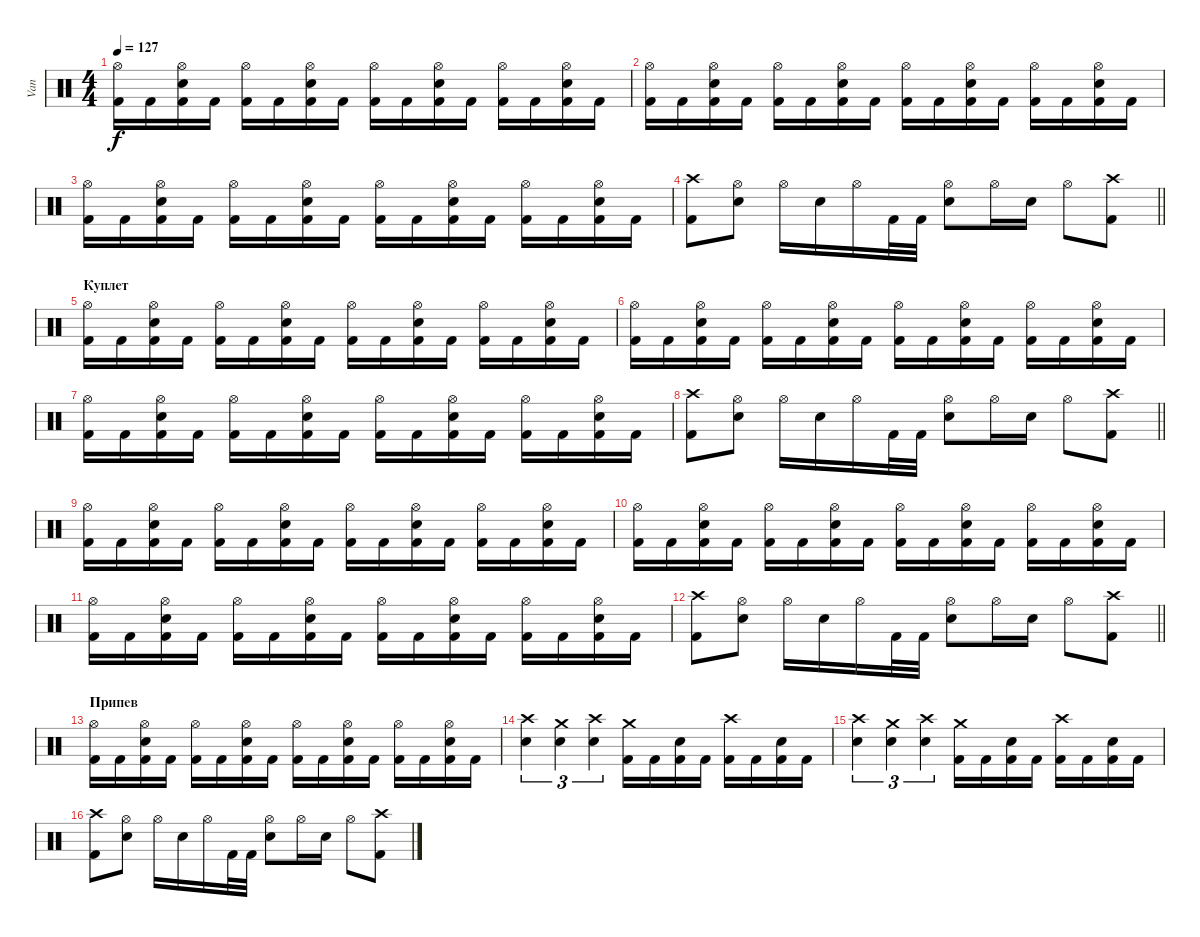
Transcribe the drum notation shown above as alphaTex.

\track ("Van" "Van") {instrument percussion}
\staff {score}
\articulation defaults
\ts (4 4)
\tempo 127
\clef neutral
\ks c
("Kick (hit) 2" "Hi-Hat (open)").16{dy f} "Kick (hit) 2".16 ("Kick (hit) 2" "Snare (hit) 2" "Hi-Hat (open)").16 "Kick (hit) 2".16 ("Kick (hit) 2" "Hi-Hat (open)").16 "Kick (hit) 2".16 ("Kick (hit) 2" "Snare (hit) 2" "Hi-Hat (open)").16 "Kick (hit) 2".16 ("Kick (hit) 2" "Hi-Hat (open)").16 "Kick (hit) 2".16 ("Kick (hit) 2" "Snare (hit) 2" "Hi-Hat (open)").16 "Kick (hit) 2".16 ("Kick (hit) 2" "Hi-Hat (open)").16 "Kick (hit) 2".16 ("Kick (hit) 2" "Snare (hit) 2" "Hi-Hat (open)").16 "Kick (hit) 2".16 |
("Kick (hit) 2" "Hi-Hat (open)").16 "Kick (hit) 2".16 ("Kick (hit) 2" "Snare (hit) 2" "Hi-Hat (open)").16 "Kick (hit) 2".16 ("Kick (hit) 2" "Hi-Hat (open)").16 "Kick (hit) 2".16 ("Kick (hit) 2" "Snare (hit) 2" "Hi-Hat (open)").16 "Kick (hit) 2".16 ("Kick (hit) 2" "Hi-Hat (open)").16 "Kick (hit) 2".16 ("Kick (hit) 2" "Snare (hit) 2" "Hi-Hat (open)").16 "Kick (hit) 2".16 ("Kick (hit) 2" "Hi-Hat (open)").16 "Kick (hit) 2".16 ("Kick (hit) 2" "Snare (hit) 2" "Hi-Hat (open)").16 "Kick (hit) 2".16 |
("Kick (hit) 2" "Hi-Hat (open)").16 "Kick (hit) 2".16 ("Kick (hit) 2" "Snare (hit) 2" "Hi-Hat (open)").16 "Kick (hit) 2".16 ("Kick (hit) 2" "Hi-Hat (open)").16 "Kick (hit) 2".16 ("Kick (hit) 2" "Snare (hit) 2" "Hi-Hat (open)").16 "Kick (hit) 2".16 ("Kick (hit) 2" "Hi-Hat (open)").16 "Kick (hit) 2".16 ("Kick (hit) 2" "Snare (hit) 2" "Hi-Hat (open)").16 "Kick (hit) 2".16 ("Kick (hit) 2" "Hi-Hat (open)").16 "Kick (hit) 2".16 ("Kick (hit) 2" "Snare (hit) 2" "Hi-Hat (open)").16 "Kick (hit) 2".16 |
\barLineRight lightlight
("Kick (hit) 2" "Crash high (hit)").8 ("Snare (hit) 2" "Hi-Hat (open)").8 "Hi-Hat (open)".16 "Snare (hit) 2".16 "Hi-Hat (open)".16 "Kick (hit) 2".32 "Kick (hit) 2".32 ("Snare (hit) 2" "Hi-Hat (open)").8 "Hi-Hat (open)".16 "Snare (hit) 2".16 "Hi-Hat (open)".8 ("Kick (hit) 2" "Crash high (hit)").8 |
\section ("" "Куплет")
("Kick (hit) 2" "Hi-Hat (open)").16 "Kick (hit) 2".16 ("Kick (hit) 2" "Snare (hit) 2" "Hi-Hat (open)").16 "Kick (hit) 2".16 ("Kick (hit) 2" "Hi-Hat (open)").16 "Kick (hit) 2".16 ("Kick (hit) 2" "Snare (hit) 2" "Hi-Hat (open)").16 "Kick (hit) 2".16 ("Kick (hit) 2" "Hi-Hat (open)").16 "Kick (hit) 2".16 ("Kick (hit) 2" "Snare (hit) 2" "Hi-Hat (open)").16 "Kick (hit) 2".16 ("Kick (hit) 2" "Hi-Hat (open)").16 "Kick (hit) 2".16 ("Kick (hit) 2" "Snare (hit) 2" "Hi-Hat (open)").16 "Kick (hit) 2".16 |
("Kick (hit) 2" "Hi-Hat (open)").16 "Kick (hit) 2".16 ("Kick (hit) 2" "Snare (hit) 2" "Hi-Hat (open)").16 "Kick (hit) 2".16 ("Kick (hit) 2" "Hi-Hat (open)").16 "Kick (hit) 2".16 ("Kick (hit) 2" "Snare (hit) 2" "Hi-Hat (open)").16 "Kick (hit) 2".16 ("Kick (hit) 2" "Hi-Hat (open)").16 "Kick (hit) 2".16 ("Kick (hit) 2" "Snare (hit) 2" "Hi-Hat (open)").16 "Kick (hit) 2".16 ("Kick (hit) 2" "Hi-Hat (open)").16 "Kick (hit) 2".16 ("Kick (hit) 2" "Snare (hit) 2" "Hi-Hat (open)").16 "Kick (hit) 2".16 |
("Kick (hit) 2" "Hi-Hat (open)").16 "Kick (hit) 2".16 ("Kick (hit) 2" "Snare (hit) 2" "Hi-Hat (open)").16 "Kick (hit) 2".16 ("Kick (hit) 2" "Hi-Hat (open)").16 "Kick (hit) 2".16 ("Kick (hit) 2" "Snare (hit) 2" "Hi-Hat (open)").16 "Kick (hit) 2".16 ("Kick (hit) 2" "Hi-Hat (open)").16 "Kick (hit) 2".16 ("Kick (hit) 2" "Snare (hit) 2" "Hi-Hat (open)").16 "Kick (hit) 2".16 ("Kick (hit) 2" "Hi-Hat (open)").16 "Kick (hit) 2".16 ("Kick (hit) 2" "Snare (hit) 2" "Hi-Hat (open)").16 "Kick (hit) 2".16 |
\barLineRight lightlight
("Kick (hit) 2" "Crash high (hit)").8 ("Snare (hit) 2" "Hi-Hat (open)").8 "Hi-Hat (open)".16 "Snare (hit) 2".16 "Hi-Hat (open)".16 "Kick (hit) 2".32 "Kick (hit) 2".32 ("Snare (hit) 2" "Hi-Hat (open)").8 "Hi-Hat (open)".16 "Snare (hit) 2".16 "Hi-Hat (open)".8 ("Kick (hit) 2" "Crash high (hit)").8 |
\section ("" "")
("Kick (hit) 2" "Hi-Hat (open)").16 "Kick (hit) 2".16 ("Kick (hit) 2" "Snare (hit) 2" "Hi-Hat (open)").16 "Kick (hit) 2".16 ("Kick (hit) 2" "Hi-Hat (open)").16 "Kick (hit) 2".16 ("Kick (hit) 2" "Snare (hit) 2" "Hi-Hat (open)").16 "Kick (hit) 2".16 ("Kick (hit) 2" "Hi-Hat (open)").16 "Kick (hit) 2".16 ("Kick (hit) 2" "Snare (hit) 2" "Hi-Hat (open)").16 "Kick (hit) 2".16 ("Kick (hit) 2" "Hi-Hat (open)").16 "Kick (hit) 2".16 ("Kick (hit) 2" "Snare (hit) 2" "Hi-Hat (open)").16 "Kick (hit) 2".16 |
("Kick (hit) 2" "Hi-Hat (open)").16 "Kick (hit) 2".16 ("Kick (hit) 2" "Snare (hit) 2" "Hi-Hat (open)").16 "Kick (hit) 2".16 ("Kick (hit) 2" "Hi-Hat (open)").16 "Kick (hit) 2".16 ("Kick (hit) 2" "Snare (hit) 2" "Hi-Hat (open)").16 "Kick (hit) 2".16 ("Kick (hit) 2" "Hi-Hat (open)").16 "Kick (hit) 2".16 ("Kick (hit) 2" "Snare (hit) 2" "Hi-Hat (open)").16 "Kick (hit) 2".16 ("Kick (hit) 2" "Hi-Hat (open)").16 "Kick (hit) 2".16 ("Kick (hit) 2" "Snare (hit) 2" "Hi-Hat (open)").16 "Kick (hit) 2".16 |
("Kick (hit) 2" "Hi-Hat (open)").16 "Kick (hit) 2".16 ("Kick (hit) 2" "Snare (hit) 2" "Hi-Hat (open)").16 "Kick (hit) 2".16 ("Kick (hit) 2" "Hi-Hat (open)").16 "Kick (hit) 2".16 ("Kick (hit) 2" "Snare (hit) 2" "Hi-Hat (open)").16 "Kick (hit) 2".16 ("Kick (hit) 2" "Hi-Hat (open)").16 "Kick (hit) 2".16 ("Kick (hit) 2" "Snare (hit) 2" "Hi-Hat (open)").16 "Kick (hit) 2".16 ("Kick (hit) 2" "Hi-Hat (open)").16 "Kick (hit) 2".16 ("Kick (hit) 2" "Snare (hit) 2" "Hi-Hat (open)").16 "Kick (hit) 2".16 |
\barLineRight lightlight
("Kick (hit) 2" "Crash high (hit)").8 ("Snare (hit) 2" "Hi-Hat (open)").8 "Hi-Hat (open)".16 "Snare (hit) 2".16 "Hi-Hat (open)".16 "Kick (hit) 2".32 "Kick (hit) 2".32 ("Snare (hit) 2" "Hi-Hat (open)").8 "Hi-Hat (open)".16 "Snare (hit) 2".16 "Hi-Hat (open)".8 ("Kick (hit) 2" "Crash high (hit)").8 |
\section ("" "Припев")
("Kick (hit) 2" "Hi-Hat (open)").16 "Kick (hit) 2".16 ("Kick (hit) 2" "Hi-Hat (open)" "Electric Snare (hit)").16 "Kick (hit) 2".16 ("Kick (hit) 2" "Hi-Hat (open)").16 "Kick (hit) 2".16 ("Kick (hit) 2" "Hi-Hat (open)" "Electric Snare (hit)").16 "Kick (hit) 2".16 ("Kick (hit) 2" "Hi-Hat (open)").16 "Kick (hit) 2".16 ("Kick (hit) 2" "Hi-Hat (open)" "Electric Snare (hit)").16 "Kick (hit) 2".16 ("Kick (hit) 2" "Hi-Hat (open)").16 "Kick (hit) 2".16 ("Kick (hit) 2" "Hi-Hat (open)" "Electric Snare (hit)").16 "Kick (hit) 2".16 |
("Crash high (hit)" "Electric Snare (hit)").4{tu (3 2)} ("Crash medium (hit)" "Electric Snare (hit)").4{tu (3 2)} ("Crash high (hit)" "Electric Snare (hit)").4{tu (3 2)} ("Kick (hit) 2" "Crash medium (hit)").16 "Kick (hit) 2".16 ("Kick (hit) 2" "Electric Snare (hit)").16 "Kick (hit) 2".16 ("Kick (hit) 2" "Crash high (hit)").16 "Kick (hit) 2".16 ("Kick (hit) 2" "Electric Snare (hit)").16 "Kick (hit) 2".16 |
("Crash high (hit)" "Electric Snare (hit)").4{tu (3 2)} ("Crash medium (hit)" "Electric Snare (hit)").4{tu (3 2)} ("Crash high (hit)" "Electric Snare (hit)").4{tu (3 2)} ("Kick (hit) 2" "Crash medium (hit)").16 "Kick (hit) 2".16 ("Kick (hit) 2" "Electric Snare (hit)").16 "Kick (hit) 2".16 ("Kick (hit) 2" "Crash high (hit)").16 "Kick (hit) 2".16 ("Kick (hit) 2" "Electric Snare (hit)").16 "Kick (hit) 2".16 |
("Kick (hit) 2" "Crash high (hit)").8 ("Snare (hit) 2" "Hi-Hat (open)").8 "Hi-Hat (open)".16 "Snare (hit) 2".16 "Hi-Hat (open)".16 "Kick (hit) 2".32 "Kick (hit) 2".32 ("Snare (hit) 2" "Hi-Hat (open)").8 "Hi-Hat (open)".16 "Snare (hit) 2".16 "Hi-Hat (open)".8 ("Kick (hit) 2" "Crash high (hit)").8
